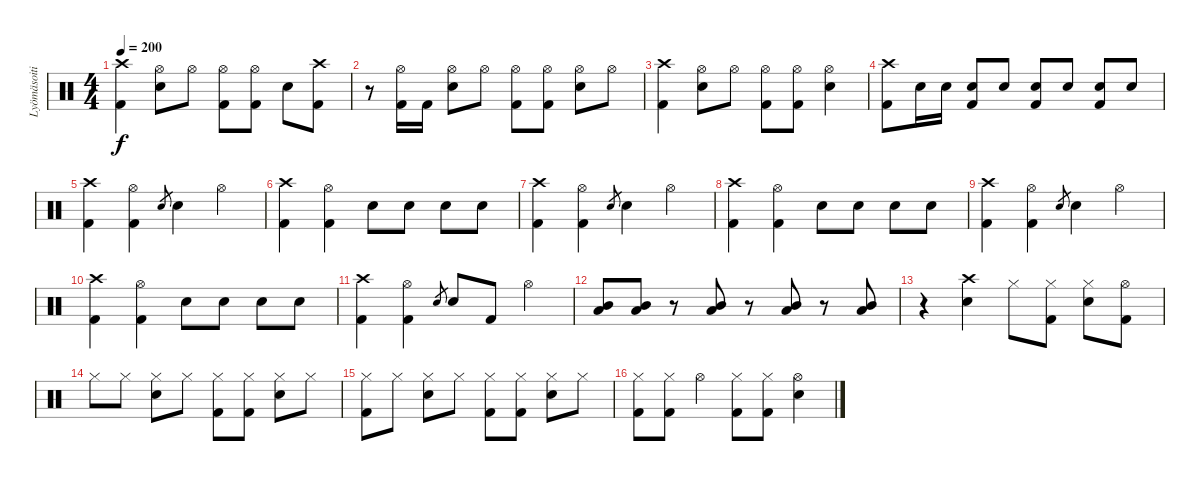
\track ("Lyömäsoitin" "Lyömäsoiti") {instrument percussion}
\staff {score}
\articulation defaults
\ts (4 4)
\tempo 200
\clef neutral
\ks c
("Crash high (hit)" "Kick (hit) 2").4{dy f} ("Hi-Hat (open)" "Snare (hit) 2").8 "Hi-Hat (open)".8 ("Hi-Hat (open)" "Kick (hit) 2").8 ("Hi-Hat (open)" "Kick (hit) 2").8 "Snare (hit) 2".8 ("Crash high (hit)" "Kick (hit) 2").8 |
r.8 ("Hi-Hat (open)" "Kick (hit) 2").16 "Kick (hit) 2".16 ("Hi-Hat (open)" "Snare (hit) 2").8 "Hi-Hat (open)".8 ("Hi-Hat (open)" "Kick (hit) 2").8 ("Hi-Hat (open)" "Kick (hit) 2").8 ("Hi-Hat (open)" "Snare (hit) 2").8 "Hi-Hat (open)".8 |
("Crash high (hit)" "Kick (hit) 2").4 ("Hi-Hat (open)" "Snare (hit) 2").8 "Hi-Hat (open)".8 ("Hi-Hat (open)" "Kick (hit) 2").8 ("Hi-Hat (open)" "Kick (hit) 2").8 ("Hi-Hat (open)" "Snare (hit) 2").4 |
("Crash high (hit)" "Kick (hit) 2").8 "Snare (hit) 2".16 "Snare (hit) 2".16 ("Snare (hit) 2" "Kick (hit) 2").8 "Snare (hit) 2".8 ("Snare (hit) 2" "Kick (hit) 2").8 "Snare (hit) 2".8 ("Snare (hit) 2" "Kick (hit) 2").8 "Snare (hit) 2".8 |
("Crash high (hit)" "Kick (hit) 2").4 ("Hi-Hat (open)" "Kick (hit) 2").4 "Snare (hit) 2".8{gr} "Snare (hit) 2".4 "Hi-Hat (open)".4 |
("Crash high (hit)" "Kick (hit) 2").4 ("Hi-Hat (open)" "Kick (hit) 2").4 "Snare (hit) 2".8 "Snare (hit) 2".8 "Snare (hit) 2".8 "Snare (hit) 2".8 |
("Crash high (hit)" "Kick (hit) 2").4 ("Hi-Hat (open)" "Kick (hit) 2").4 "Snare (hit) 2".8{gr} "Snare (hit) 2".4 "Hi-Hat (open)".4 |
("Crash high (hit)" "Kick (hit) 2").4 ("Hi-Hat (open)" "Kick (hit) 2").4 "Snare (hit) 2".8 "Snare (hit) 2".8 "Snare (hit) 2".8 "Snare (hit) 2".8 |
("Crash high (hit)" "Kick (hit) 2").4 ("Hi-Hat (open)" "Kick (hit) 2").4 "Snare (hit) 2".8{gr} "Snare (hit) 2".4 "Hi-Hat (open)".4 |
("Crash high (hit)" "Kick (hit) 2").4 ("Hi-Hat (open)" "Kick (hit) 2").4 "Snare (hit) 2".8 "Snare (hit) 2".8 "Snare (hit) 2".8 "Snare (hit) 2".8 |
("Crash high (hit)" "Kick (hit) 2").4 ("Hi-Hat (open)" "Kick (hit) 2").4 "Snare (hit) 2".8{gr} "Snare (hit) 2".8 "Kick (hit) 2".8 "Hi-Hat (open)".4 |
("Mid Tom (hit)" "Low Tom (hit)").8 ("Mid Tom (hit)" "Low Tom (hit)").8 r.8 ("Mid Tom (hit)" "Low Tom (hit)").8 r.8 ("Mid Tom (hit)" "Low Tom (hit)").8 r.8 ("Mid Tom (hit)" "Low Tom (hit)").8 |
r.4 ("Crash high (hit)" "Snare (hit) 2").4 "Hi-Hat (closed)".8 ("Hi-Hat (closed)" "Kick (hit) 2").8 ("Hi-Hat (closed)" "Snare (hit) 2").8 ("Hi-Hat (open)" "Kick (hit) 2").8 |
"Hi-Hat (closed)".8 "Hi-Hat (closed)".8 ("Hi-Hat (closed)" "Snare (hit) 2").8 "Hi-Hat (closed)".8 ("Hi-Hat (closed)" "Kick (hit) 2").8 ("Hi-Hat (closed)" "Kick (hit) 2").8 ("Hi-Hat (closed)" "Snare (hit) 2").8 "Hi-Hat (closed)".8 |
("Hi-Hat (closed)" "Kick (hit) 2").8 "Hi-Hat (closed)".8 ("Hi-Hat (closed)" "Snare (hit) 2").8 "Hi-Hat (closed)".8 ("Hi-Hat (closed)" "Kick (hit) 2").8 ("Hi-Hat (closed)" "Kick (hit) 2").8 ("Hi-Hat (closed)" "Snare (hit) 2").8 "Hi-Hat (closed)".8 |
("Hi-Hat (closed)" "Kick (hit) 2").8 ("Hi-Hat (closed)" "Kick (hit) 2").8 "Hi-Hat (open)".4 ("Hi-Hat (closed)" "Kick (hit) 2").8 ("Hi-Hat (closed)" "Kick (hit) 2").8 ("Hi-Hat (open)" "Snare (hit) 2").4
